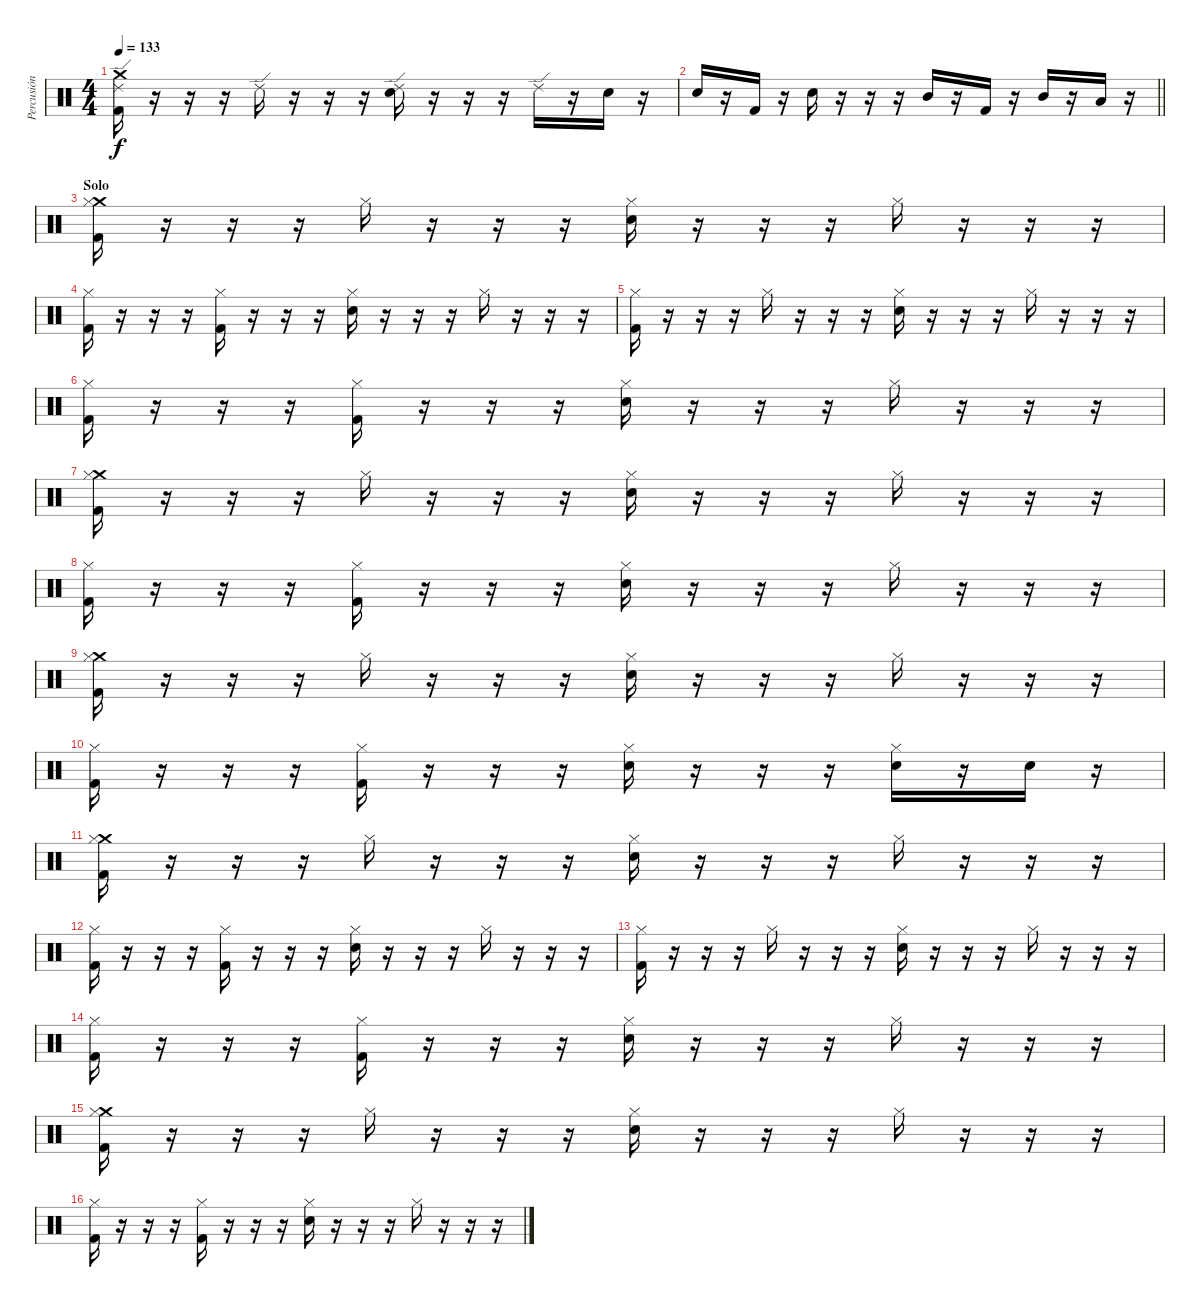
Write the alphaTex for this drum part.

\track ("Percusión" "Percusión") {instrument percussion}
\staff {score}
\articulation defaults
\ts (4 4)
\tempo 133
\clef neutral
\ks c
("Crash medium (hit)" "Ride (edge) 2" "Kick (hit) 2").16{dy f} r.16 r.16 r.16 "Ride (edge) 2".16 r.16 r.16 r.16 ("Ride (edge) 2" "Snare (hit) 2").16 r.16 r.16 r.16 "Ride (edge) 2".16 r.16 "Snare (hit) 2".16 r.16 |
\barLineRight lightlight "Snare (hit) 2".16
r.16 "Kick (hit) 2".16 r.16 "Snare (hit) 2".16 r.16 r.16 r.16 "Mid Tom (hit)".16 r.16 "Kick (hit) 2".16 r.16 "Mid Tom (hit)".16 r.16 "Low Tom (hit)".16 r.16 |
\section ("" "Solo")
("Crash medium (hit)" "Hi-Hat (closed)" "Kick (hit) 2").16 r.16 r.16 r.16 "Hi-Hat (closed)".16 r.16 r.16 r.16 ("Hi-Hat (closed)" "Snare (hit) 2").16 r.16 r.16 r.16 "Hi-Hat (closed)".16 r.16 r.16 r.16 |
("Hi-Hat (closed)" "Kick (hit) 2").16 r.16 r.16 r.16 ("Hi-Hat (closed)" "Kick (hit) 2").16 r.16 r.16 r.16 ("Hi-Hat (closed)" "Snare (hit) 2").16 r.16 r.16 r.16 "Hi-Hat (closed)".16 r.16 r.16 r.16 |
("Hi-Hat (closed)" "Kick (hit) 2").16 r.16 r.16 r.16 "Hi-Hat (closed)".16 r.16 r.16 r.16 ("Hi-Hat (closed)" "Snare (hit) 2").16 r.16 r.16 r.16 "Hi-Hat (closed)".16 r.16 r.16 r.16 |
("Hi-Hat (closed)" "Kick (hit) 2").16 r.16 r.16 r.16 ("Hi-Hat (closed)" "Kick (hit) 2").16 r.16 r.16 r.16 ("Hi-Hat (closed)" "Snare (hit) 2").16 r.16 r.16 r.16 "Hi-Hat (closed)".16 r.16 r.16 r.16 |
("Crash medium (hit)" "Hi-Hat (closed)" "Kick (hit) 2").16 r.16 r.16 r.16 "Hi-Hat (closed)".16 r.16 r.16 r.16 ("Hi-Hat (closed)" "Snare (hit) 2").16 r.16 r.16 r.16 "Hi-Hat (closed)".16 r.16 r.16 r.16 |
("Hi-Hat (closed)" "Kick (hit) 2").16 r.16 r.16 r.16 ("Hi-Hat (closed)" "Kick (hit) 2").16 r.16 r.16 r.16 ("Hi-Hat (closed)" "Snare (hit) 2").16 r.16 r.16 r.16 "Hi-Hat (closed)".16 r.16 r.16 r.16 |
("Crash medium (hit)" "Hi-Hat (closed)" "Kick (hit) 2").16 r.16 r.16 r.16 "Hi-Hat (closed)".16 r.16 r.16 r.16 ("Hi-Hat (closed)" "Snare (hit) 2").16 r.16 r.16 r.16 "Hi-Hat (closed)".16 r.16 r.16 r.16 |
("Hi-Hat (closed)" "Kick (hit) 2").16 r.16 r.16 r.16 ("Hi-Hat (closed)" "Kick (hit) 2").16 r.16 r.16 r.16 ("Hi-Hat (closed)" "Snare (hit) 2").16 r.16 r.16 r.16 ("Hi-Hat (closed)" "Snare (hit) 2").16 r.16 "Snare (hit) 2".16 r.16 |
("Crash medium (hit)" "Hi-Hat (closed)" "Kick (hit) 2").16 r.16 r.16 r.16 "Hi-Hat (closed)".16 r.16 r.16 r.16 ("Hi-Hat (closed)" "Snare (hit) 2").16 r.16 r.16 r.16 "Hi-Hat (closed)".16 r.16 r.16 r.16 |
("Hi-Hat (closed)" "Kick (hit) 2").16 r.16 r.16 r.16 ("Hi-Hat (closed)" "Kick (hit) 2").16 r.16 r.16 r.16 ("Hi-Hat (closed)" "Snare (hit) 2").16 r.16 r.16 r.16 "Hi-Hat (closed)".16 r.16 r.16 r.16 |
("Hi-Hat (closed)" "Kick (hit) 2").16 r.16 r.16 r.16 "Hi-Hat (closed)".16 r.16 r.16 r.16 ("Hi-Hat (closed)" "Snare (hit) 2").16 r.16 r.16 r.16 "Hi-Hat (closed)".16 r.16 r.16 r.16 |
("Hi-Hat (closed)" "Kick (hit) 2").16 r.16 r.16 r.16 ("Hi-Hat (closed)" "Kick (hit) 2").16 r.16 r.16 r.16 ("Hi-Hat (closed)" "Snare (hit) 2").16 r.16 r.16 r.16 "Hi-Hat (closed)".16 r.16 r.16 r.16 |
("Crash medium (hit)" "Hi-Hat (closed)" "Kick (hit) 2").16 r.16 r.16 r.16 "Hi-Hat (closed)".16 r.16 r.16 r.16 ("Hi-Hat (closed)" "Snare (hit) 2").16 r.16 r.16 r.16 "Hi-Hat (closed)".16 r.16 r.16 r.16 |
("Hi-Hat (closed)" "Kick (hit) 2").16 r.16 r.16 r.16 ("Hi-Hat (closed)" "Kick (hit) 2").16 r.16 r.16 r.16 ("Hi-Hat (closed)" "Snare (hit) 2").16 r.16 r.16 r.16 "Hi-Hat (closed)".16 r.16 r.16 r.16
